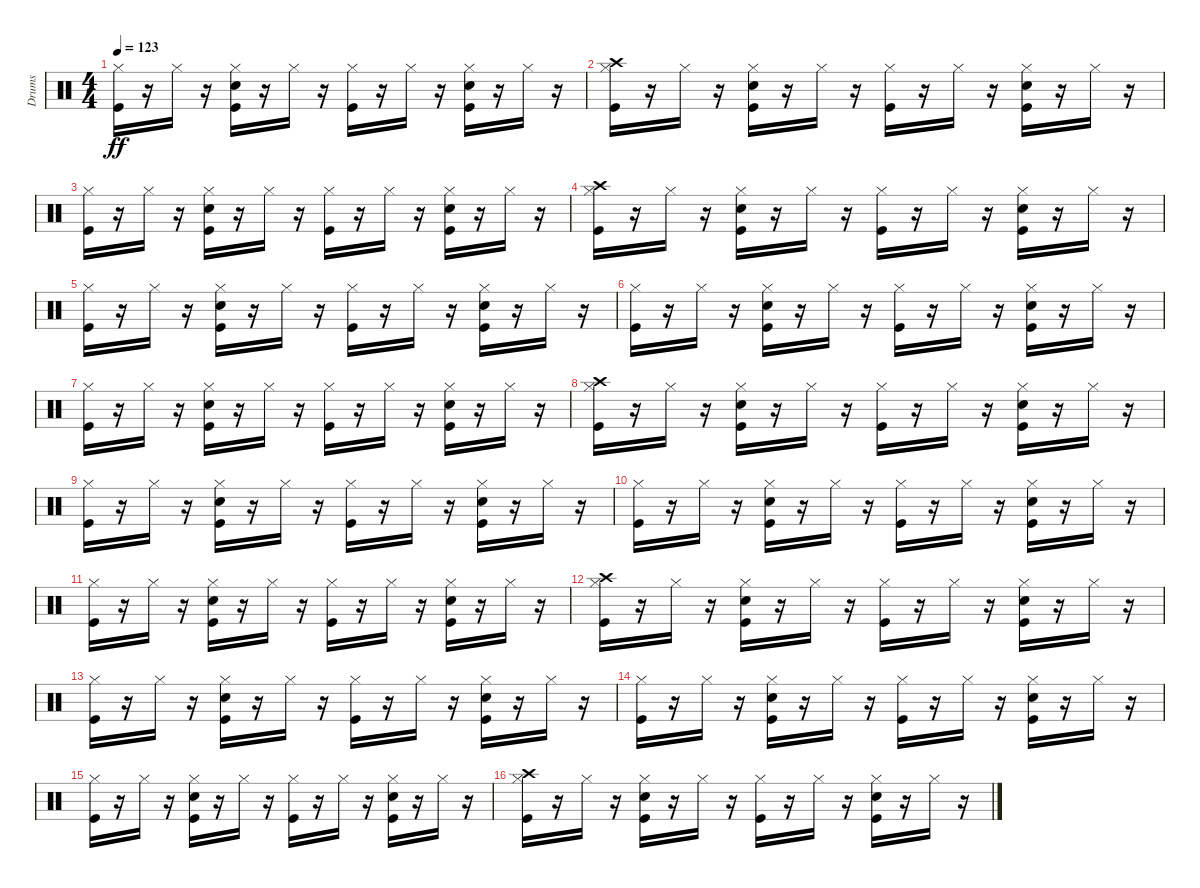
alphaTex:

\track ("Drums" "Drums") {instrument percussion}
\staff {score}
\articulation defaults
\ts (4 4)
\tempo 123
\clef neutral
\ks c
("Kick (hit)" "Hi-Hat (closed)").16{dy ff} r.16 "Hi-Hat (closed)".16 r.16 ("Kick (hit)" "Hi-Hat (closed)" "Snare (hit) 2").16 r.16 "Hi-Hat (closed)".16 r.16 ("Kick (hit)" "Hi-Hat (closed)").16 r.16 "Hi-Hat (closed)".16 r.16 ("Kick (hit)" "Snare (hit) 2" "Hi-Hat (closed)").16 r.16 "Hi-Hat (closed)".16 r.16 |
("Crash high (hit)" "Kick (hit)" "Hi-Hat (closed)").16 r.16 "Hi-Hat (closed)".16 r.16 ("Kick (hit)" "Hi-Hat (closed)" "Snare (hit) 2").16 r.16 "Hi-Hat (closed)".16 r.16 ("Kick (hit)" "Hi-Hat (closed)").16 r.16 "Hi-Hat (closed)".16 r.16 ("Kick (hit)" "Snare (hit) 2" "Hi-Hat (closed)").16 r.16 "Hi-Hat (closed)".16 r.16 |
("Kick (hit)" "Hi-Hat (closed)").16 r.16 "Hi-Hat (closed)".16 r.16 ("Kick (hit)" "Hi-Hat (closed)" "Snare (hit) 2").16 r.16 "Hi-Hat (closed)".16 r.16 ("Kick (hit)" "Hi-Hat (closed)").16 r.16 "Hi-Hat (closed)".16 r.16 ("Kick (hit)" "Snare (hit) 2" "Hi-Hat (closed)").16 r.16 "Hi-Hat (closed)".16 r.16 |
("Crash high (hit)" "Kick (hit)" "Hi-Hat (closed)").16 r.16 "Hi-Hat (closed)".16 r.16 ("Kick (hit)" "Hi-Hat (closed)" "Snare (hit) 2").16 r.16 "Hi-Hat (closed)".16 r.16 ("Kick (hit)" "Hi-Hat (closed)").16 r.16 "Hi-Hat (closed)".16 r.16 ("Kick (hit)" "Snare (hit) 2" "Hi-Hat (closed)").16 r.16 "Hi-Hat (closed)".16 r.16 |
("Kick (hit)" "Hi-Hat (closed)").16 r.16 "Hi-Hat (closed)".16 r.16 ("Kick (hit)" "Hi-Hat (closed)" "Snare (hit) 2").16 r.16 "Hi-Hat (closed)".16 r.16 ("Kick (hit)" "Hi-Hat (closed)").16 r.16 "Hi-Hat (closed)".16 r.16 ("Kick (hit)" "Snare (hit) 2" "Hi-Hat (closed)").16 r.16 "Hi-Hat (closed)".16 r.16 |
("Kick (hit)" "Hi-Hat (closed)").16 r.16 "Hi-Hat (closed)".16 r.16 ("Kick (hit)" "Hi-Hat (closed)" "Snare (hit) 2").16 r.16 "Hi-Hat (closed)".16 r.16 ("Kick (hit)" "Hi-Hat (closed)").16 r.16 "Hi-Hat (closed)".16 r.16 ("Kick (hit)" "Snare (hit) 2" "Hi-Hat (closed)").16 r.16 "Hi-Hat (closed)".16 r.16 |
("Kick (hit)" "Hi-Hat (closed)").16 r.16 "Hi-Hat (closed)".16 r.16 ("Kick (hit)" "Hi-Hat (closed)" "Snare (hit) 2").16 r.16 "Hi-Hat (closed)".16 r.16 ("Kick (hit)" "Hi-Hat (closed)").16 r.16 "Hi-Hat (closed)".16 r.16 ("Kick (hit)" "Snare (hit) 2" "Hi-Hat (closed)").16 r.16 "Hi-Hat (closed)".16 r.16 |
("Crash high (hit)" "Kick (hit)" "Hi-Hat (closed)").16 r.16 "Hi-Hat (closed)".16 r.16 ("Kick (hit)" "Hi-Hat (closed)" "Snare (hit) 2").16 r.16 "Hi-Hat (closed)".16 r.16 ("Kick (hit)" "Hi-Hat (closed)").16 r.16 "Hi-Hat (closed)".16 r.16 ("Kick (hit)" "Snare (hit) 2" "Hi-Hat (closed)").16 r.16 "Hi-Hat (closed)".16 r.16 |
("Kick (hit)" "Hi-Hat (closed)").16 r.16 "Hi-Hat (closed)".16 r.16 ("Kick (hit)" "Hi-Hat (closed)" "Snare (hit) 2").16 r.16 "Hi-Hat (closed)".16 r.16 ("Kick (hit)" "Hi-Hat (closed)").16 r.16 "Hi-Hat (closed)".16 r.16 ("Kick (hit)" "Snare (hit) 2" "Hi-Hat (closed)").16 r.16 "Hi-Hat (closed)".16 r.16 |
("Kick (hit)" "Hi-Hat (closed)").16 r.16 "Hi-Hat (closed)".16 r.16 ("Kick (hit)" "Hi-Hat (closed)" "Snare (hit) 2").16 r.16 "Hi-Hat (closed)".16 r.16 ("Kick (hit)" "Hi-Hat (closed)").16 r.16 "Hi-Hat (closed)".16 r.16 ("Kick (hit)" "Snare (hit) 2" "Hi-Hat (closed)").16 r.16 "Hi-Hat (closed)".16 r.16 |
("Kick (hit)" "Hi-Hat (closed)").16 r.16 "Hi-Hat (closed)".16 r.16 ("Kick (hit)" "Hi-Hat (closed)" "Snare (hit) 2").16 r.16 "Hi-Hat (closed)".16 r.16 ("Kick (hit)" "Hi-Hat (closed)").16 r.16 "Hi-Hat (closed)".16 r.16 ("Kick (hit)" "Snare (hit) 2" "Hi-Hat (closed)").16 r.16 "Hi-Hat (closed)".16 r.16 |
("Crash high (hit)" "Kick (hit)" "Hi-Hat (closed)").16 r.16 "Hi-Hat (closed)".16 r.16 ("Kick (hit)" "Hi-Hat (closed)" "Snare (hit) 2").16 r.16 "Hi-Hat (closed)".16 r.16 ("Kick (hit)" "Hi-Hat (closed)").16 r.16 "Hi-Hat (closed)".16 r.16 ("Kick (hit)" "Snare (hit) 2" "Hi-Hat (closed)").16 r.16 "Hi-Hat (closed)".16 r.16 |
("Kick (hit)" "Hi-Hat (closed)").16 r.16 "Hi-Hat (closed)".16 r.16 ("Kick (hit)" "Hi-Hat (closed)" "Snare (hit) 2").16 r.16 "Hi-Hat (closed)".16 r.16 ("Kick (hit)" "Hi-Hat (closed)").16 r.16 "Hi-Hat (closed)".16 r.16 ("Kick (hit)" "Snare (hit) 2" "Hi-Hat (closed)").16 r.16 "Hi-Hat (closed)".16 r.16 |
("Kick (hit)" "Hi-Hat (closed)").16 r.16 "Hi-Hat (closed)".16 r.16 ("Kick (hit)" "Hi-Hat (closed)" "Snare (hit) 2").16 r.16 "Hi-Hat (closed)".16 r.16 ("Kick (hit)" "Hi-Hat (closed)").16 r.16 "Hi-Hat (closed)".16 r.16 ("Kick (hit)" "Snare (hit) 2" "Hi-Hat (closed)").16 r.16 "Hi-Hat (closed)".16 r.16 |
("Kick (hit)" "Hi-Hat (closed)").16 r.16 "Hi-Hat (closed)".16 r.16 ("Kick (hit)" "Hi-Hat (closed)" "Snare (hit) 2").16 r.16 "Hi-Hat (closed)".16 r.16 ("Kick (hit)" "Hi-Hat (closed)").16 r.16 "Hi-Hat (closed)".16 r.16 ("Kick (hit)" "Snare (hit) 2" "Hi-Hat (closed)").16 r.16 "Hi-Hat (closed)".16 r.16 |
("Crash high (hit)" "Kick (hit)" "Hi-Hat (closed)").16 r.16 "Hi-Hat (closed)".16 r.16 ("Kick (hit)" "Hi-Hat (closed)" "Snare (hit) 2").16 r.16 "Hi-Hat (closed)".16 r.16 ("Kick (hit)" "Hi-Hat (closed)").16 r.16 "Hi-Hat (closed)".16 r.16 ("Kick (hit)" "Snare (hit) 2" "Hi-Hat (closed)").16 r.16 "Hi-Hat (closed)".16 r.16
